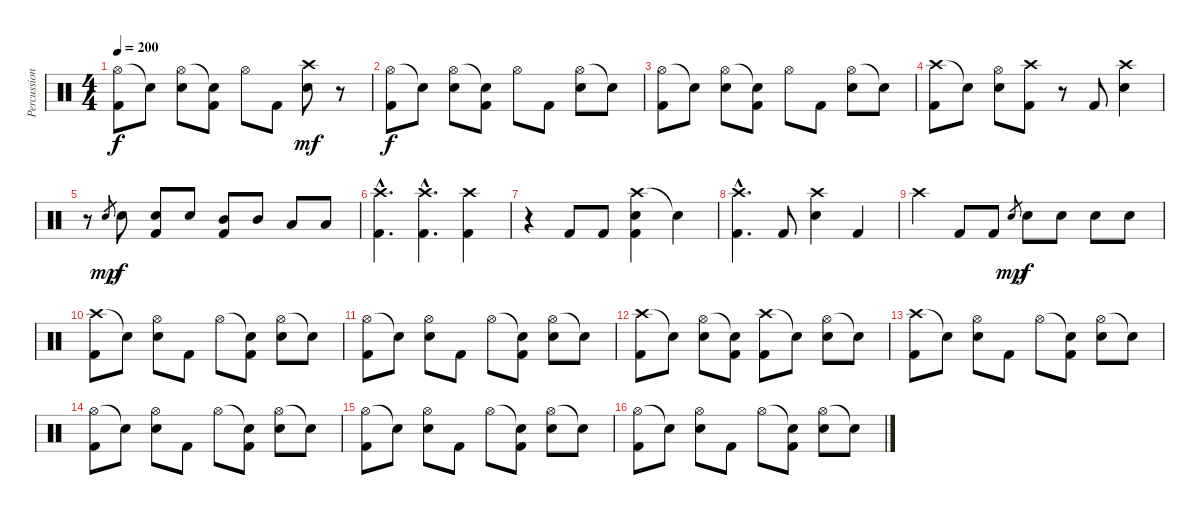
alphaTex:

\track ("Percussions" "Percussion") {instrument percussion}
\staff {score}
\articulation defaults
\ts (4 4)
\tempo 200
\clef neutral
\ks c
("Hi-Hat (open)" "Kick (hit) 2").8{dy f} "Snare (hit)"{t}.8 ("Hi-Hat (open)" "Electric Snare (hit)").8 ("Snare (hit)"{t} "Kick (hit) 2").8 "Hi-Hat (open)".8 "Kick (hit) 2".8 ("Crash high (hit)" "Electric Snare (hit)").8{dy mf} r.8 |
("Hi-Hat (open)" "Kick (hit) 2").8{dy f} "Snare (hit)"{t}.8 ("Hi-Hat (open)" "Electric Snare (hit)").8 ("Snare (hit)"{t} "Kick (hit) 2").8 "Hi-Hat (open)".8 "Kick (hit) 2".8 ("Hi-Hat (open)" "Electric Snare (hit)").8 "Snare (hit)"{t}.8 |
("Hi-Hat (open)" "Kick (hit) 2").8 "Snare (hit)"{t}.8 ("Hi-Hat (open)" "Electric Snare (hit)").8 ("Snare (hit)"{t} "Kick (hit) 2").8 "Hi-Hat (open)".8 "Kick (hit) 2".8 ("Hi-Hat (open)" "Electric Snare (hit)").8 "Snare (hit)"{t}.8 |
("Crash high (hit)" "Kick (hit) 2").8 "Snare (hit)"{t}.8 ("Hi-Hat (open)" "Electric Snare (hit)").8 ("Crash high (hit)" "Kick (hit) 2").8 r.8 "Kick (hit) 2".8 ("Crash high (hit)" "Electric Snare (hit)").4 |
r.8 "Electric Snare (hit)".8{gr dy mp} "Electric Snare (hit)".8{dy f} ("Electric Snare (hit)" "Kick (hit) 2").8 "Electric Snare (hit)".8 ("Mid Tom (hit)" "Kick (hit) 2").8 "Mid Tom (hit)".8 "Low Tom (hit)".8 "Low Tom (hit)".8 |
("Crash high (hit)"{hac} "Kick (hit) 2"{hac}).4{d} ("Crash high (hit)"{hac} "Kick (hit) 2"{hac}).4{d} ("Crash high (hit)" "Kick (hit) 2").4 |
r.4 "Kick (hit) 2".8 "Kick (hit) 2".8 ("Crash high (hit)" "Electric Snare (hit)" "Kick (hit) 2").4 "Snare (hit)"{t}.4 |
("Crash high (hit)"{hac} "Kick (hit) 2"{hac}).4{d} "Kick (hit) 2".8 ("Crash high (hit)" "Electric Snare (hit)").4 "Kick (hit) 2".4 |
"Crash high (hit)".4 "Kick (hit) 2".8 "Kick (hit) 2".8 "Electric Snare (hit)".8{gr dy mp} "Electric Snare (hit)".8{dy f} "Electric Snare (hit)".8 "Electric Snare (hit)".8 "Electric Snare (hit)".8 |
("Crash high (hit)" "Kick (hit) 2").8 "Snare (hit)"{t}.8 ("Hi-Hat (open)" "Electric Snare (hit)").8 "Kick (hit) 2".8 "Hi-Hat (open)".8 ("Snare (hit)"{t} "Kick (hit) 2").8 ("Hi-Hat (open)" "Electric Snare (hit)").8 "Snare (hit)"{t}.8 |
("Hi-Hat (open)" "Kick (hit) 2").8 "Snare (hit)"{t}.8 ("Hi-Hat (open)" "Electric Snare (hit)").8 "Kick (hit) 2".8 "Hi-Hat (open)".8 ("Snare (hit)"{t} "Kick (hit) 2").8 ("Hi-Hat (open)" "Electric Snare (hit)").8 "Snare (hit)"{t}.8 |
("Crash high (hit)" "Kick (hit) 2").8 "Snare (hit)"{t}.8 ("Hi-Hat (open)" "Electric Snare (hit)").8 ("Snare (hit)"{t} "Kick (hit) 2").8 ("Crash high (hit)" "Kick (hit) 2").8 "Snare (hit)"{t}.8 ("Hi-Hat (open)" "Electric Snare (hit)").8 "Snare (hit)"{t}.8 |
("Crash high (hit)" "Kick (hit) 2").8 "Snare (hit)"{t}.8 ("Hi-Hat (open)" "Electric Snare (hit)").8 "Kick (hit) 2".8 "Hi-Hat (open)".8 ("Snare (hit)"{t} "Kick (hit) 2").8 ("Hi-Hat (open)" "Electric Snare (hit)").8 "Snare (hit)"{t}.8 |
("Hi-Hat (open)" "Kick (hit) 2").8 "Snare (hit)"{t}.8 ("Hi-Hat (open)" "Electric Snare (hit)").8 "Kick (hit) 2".8 "Hi-Hat (open)".8 ("Snare (hit)"{t} "Kick (hit) 2").8 ("Hi-Hat (open)" "Electric Snare (hit)").8 "Snare (hit)"{t}.8 |
("Hi-Hat (open)" "Kick (hit) 2").8 "Snare (hit)"{t}.8 ("Hi-Hat (open)" "Electric Snare (hit)").8 "Kick (hit) 2".8 "Hi-Hat (open)".8 ("Snare (hit)"{t} "Kick (hit) 2").8 ("Hi-Hat (open)" "Electric Snare (hit)").8 "Snare (hit)"{t}.8 |
("Hi-Hat (open)" "Kick (hit) 2").8 "Snare (hit)"{t}.8 ("Hi-Hat (open)" "Electric Snare (hit)").8 "Kick (hit) 2".8 "Hi-Hat (open)".8 ("Snare (hit)"{t} "Kick (hit) 2").8 ("Hi-Hat (open)" "Electric Snare (hit)").8 "Snare (hit)"{t}.8
